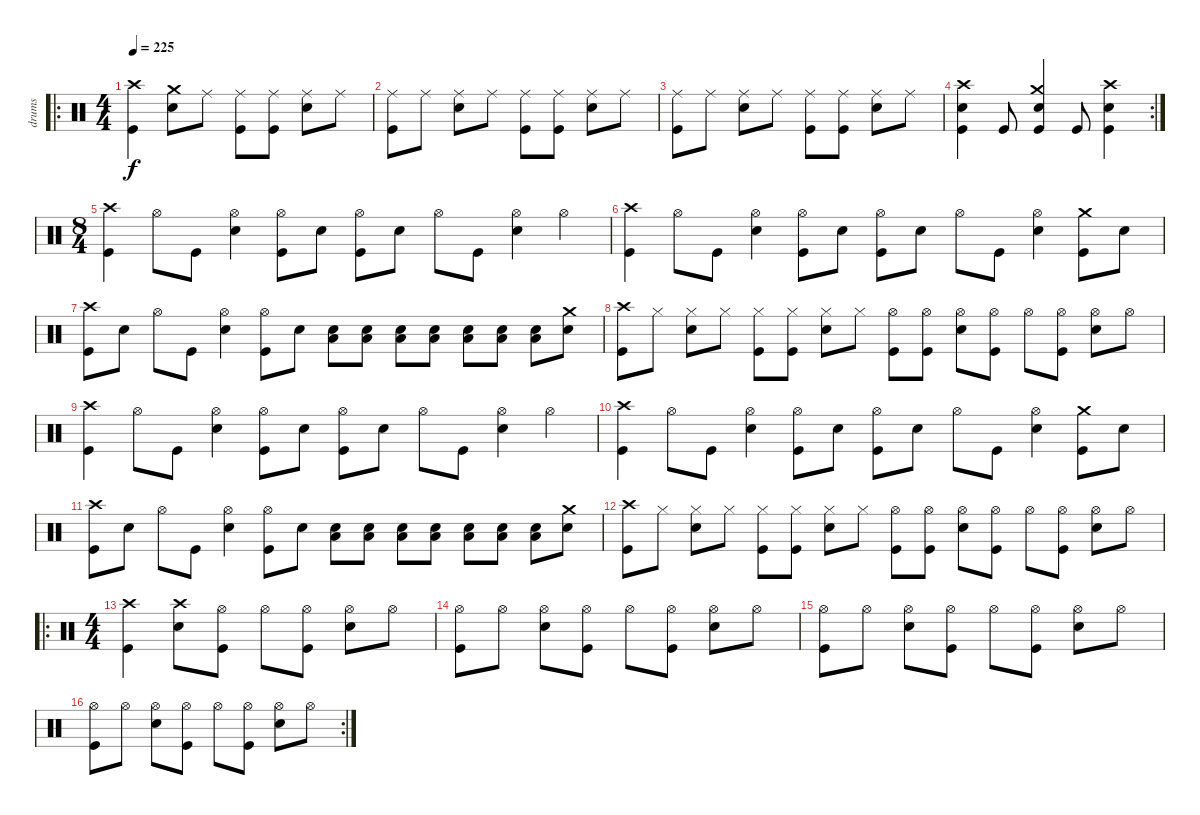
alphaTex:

\track ("drums" "drums") {instrument percussion}
\staff {score}
\articulation defaults
\ro
\ts (4 4)
\tempo 225
\clef neutral
\ks c
("Crash high (hit)" "Kick (hit)").4{dy f} ("Crash medium (hit)" "Snare (hit) 2").8 "Ride (middle)".8 ("Ride (middle)" "Kick (hit)").8 ("Ride (middle)" "Kick (hit)").8 ("Ride (middle)" "Snare (hit) 2").8 "Ride (middle)".8 |
("Ride (middle)" "Kick (hit)").8 "Ride (middle)".8 ("Ride (middle)" "Snare (hit) 2").8 "Ride (middle)".8 ("Ride (middle)" "Kick (hit)").8 ("Ride (middle)" "Kick (hit)").8 ("Ride (middle)" "Snare (hit) 2").8 "Ride (middle)".8 |
("Ride (middle)" "Kick (hit)").8 "Ride (middle)".8 ("Ride (middle)" "Snare (hit) 2").8 "Ride (middle)".8 ("Ride (middle)" "Kick (hit)").8 ("Ride (middle)" "Kick (hit)").8 ("Ride (middle)" "Snare (hit) 2").8 "Ride (middle)".8 |
\rc 2
("Crash high (hit)" "Snare (hit) 2" "Kick (hit)").4 "Kick (hit)".8 ("Crash medium (hit)" "Snare (hit) 2" "Kick (hit)").4 "Kick (hit)".8 ("Crash high (hit)" "Snare (hit) 2" "Kick (hit)").4 |
\ts (8 4)
("Crash high (hit)" "Kick (hit)").4 "Hi-Hat (open)".8 "Kick (hit)".8 ("Hi-Hat (open)" "Snare (hit) 2").4 ("Hi-Hat (open)" "Kick (hit)").8 "Snare (hit) 2".8 ("Hi-Hat (open)" "Kick (hit)").8 "Snare (hit) 2".8 "Hi-Hat (open)".8 "Kick (hit)".8 ("Hi-Hat (open)" "Snare (hit) 2").4 "Hi-Hat (open)".4 |
("Crash high (hit)" "Kick (hit)").4 "Hi-Hat (open)".8 "Kick (hit)".8 ("Hi-Hat (open)" "Snare (hit) 2").4 ("Hi-Hat (open)" "Kick (hit)").8 "Snare (hit) 2".8 ("Hi-Hat (open)" "Kick (hit)").8 "Snare (hit) 2".8 "Hi-Hat (open)".8 "Kick (hit)".8 ("Hi-Hat (open)" "Snare (hit) 2").4 ("Crash medium (hit)" "Kick (hit)").8 "Snare (hit) 2".8 |
("Crash high (hit)" "Kick (hit)").8 "Snare (hit) 2".8 "Hi-Hat (open)".8 "Kick (hit)".8 ("Hi-Hat (open)" "Snare (hit) 2").4 ("Hi-Hat (open)" "Kick (hit)").8 "Snare (hit) 2".8 ("Snare (hit) 2" "Low Tom (hit)").8 ("Snare (hit) 2" "Low Tom (hit)").8 ("Snare (hit) 2" "Low Tom (hit)").8 ("Snare (hit) 2" "Low Tom (hit)").8 ("Snare (hit) 2" "Low Tom (hit)").8 ("Snare (hit) 2" "Low Tom (hit)").8 ("Snare (hit) 2" "Low Tom (hit)").8 ("Snare (hit) 2" "Crash medium (hit)").8 |
("Crash high (hit)" "Kick (hit)").8 "Hi-Hat (closed)".8 ("Hi-Hat (closed)" "Snare (hit) 2").8 "Hi-Hat (closed)".8 ("Hi-Hat (closed)" "Kick (hit)").8 ("Hi-Hat (closed)" "Kick (hit)").8 ("Hi-Hat (closed)" "Snare (hit) 2").8 "Hi-Hat (closed)".8 ("Hi-Hat (open)" "Kick (hit)").8 ("Hi-Hat (open)" "Kick (hit)").8 ("Hi-Hat (open)" "Snare (hit) 2").8 ("Hi-Hat (open)" "Kick (hit)").8 "Hi-Hat (open)".8 ("Hi-Hat (open)" "Kick (hit)").8 ("Hi-Hat (open)" "Snare (hit) 2").8 "Hi-Hat (open)".8 |
("Crash high (hit)" "Kick (hit)").4 "Hi-Hat (open)".8 "Kick (hit)".8 ("Hi-Hat (open)" "Snare (hit) 2").4 ("Hi-Hat (open)" "Kick (hit)").8 "Snare (hit) 2".8 ("Hi-Hat (open)" "Kick (hit)").8 "Snare (hit) 2".8 "Hi-Hat (open)".8 "Kick (hit)".8 ("Hi-Hat (open)" "Snare (hit) 2").4 "Hi-Hat (open)".4 |
("Crash high (hit)" "Kick (hit)").4 "Hi-Hat (open)".8 "Kick (hit)".8 ("Hi-Hat (open)" "Snare (hit) 2").4 ("Hi-Hat (open)" "Kick (hit)").8 "Snare (hit) 2".8 ("Hi-Hat (open)" "Kick (hit)").8 "Snare (hit) 2".8 "Hi-Hat (open)".8 "Kick (hit)".8 ("Hi-Hat (open)" "Snare (hit) 2").4 ("Crash medium (hit)" "Kick (hit)").8 "Snare (hit) 2".8 |
("Crash high (hit)" "Kick (hit)").8 "Snare (hit) 2".8 "Hi-Hat (open)".8 "Kick (hit)".8 ("Hi-Hat (open)" "Snare (hit) 2").4 ("Hi-Hat (open)" "Kick (hit)").8 "Snare (hit) 2".8 ("Snare (hit) 2" "Low Tom (hit)").8 ("Snare (hit) 2" "Low Tom (hit)").8 ("Snare (hit) 2" "Low Tom (hit)").8 ("Snare (hit) 2" "Low Tom (hit)").8 ("Snare (hit) 2" "Low Tom (hit)").8 ("Snare (hit) 2" "Low Tom (hit)").8 ("Snare (hit) 2" "Low Tom (hit)").8 ("Snare (hit) 2" "Crash medium (hit)").8 |
("Crash high (hit)" "Kick (hit)").8 "Hi-Hat (closed)".8 ("Hi-Hat (closed)" "Snare (hit) 2").8 "Hi-Hat (closed)".8 ("Hi-Hat (closed)" "Kick (hit)").8 ("Hi-Hat (closed)" "Kick (hit)").8 ("Hi-Hat (closed)" "Snare (hit) 2").8 "Hi-Hat (closed)".8 ("Hi-Hat (open)" "Kick (hit)").8 ("Hi-Hat (open)" "Kick (hit)").8 ("Hi-Hat (open)" "Snare (hit) 2").8 ("Hi-Hat (open)" "Kick (hit)").8 "Hi-Hat (open)".8 ("Hi-Hat (open)" "Kick (hit)").8 ("Hi-Hat (open)" "Snare (hit) 2").8 "Hi-Hat (open)".8 |
\ro
\ts (4 4)
("Crash high (hit)" "Kick (hit)").4 ("Crash high (hit)" "Snare (hit) 2").8 ("Hi-Hat (open)" "Kick (hit)").8 "Hi-Hat (open)".8 ("Hi-Hat (open)" "Kick (hit)").8 ("Hi-Hat (open)" "Snare (hit) 2").8 "Hi-Hat (open)".8 |
("Hi-Hat (open)" "Kick (hit)").8 "Hi-Hat (open)".8 ("Hi-Hat (open)" "Snare (hit) 2").8 ("Hi-Hat (open)" "Kick (hit)").8 "Hi-Hat (open)".8 ("Hi-Hat (open)" "Kick (hit)").8 ("Hi-Hat (open)" "Snare (hit) 2").8 "Hi-Hat (open)".8 |
("Hi-Hat (open)" "Kick (hit)").8 "Hi-Hat (open)".8 ("Hi-Hat (open)" "Snare (hit) 2").8 ("Hi-Hat (open)" "Kick (hit)").8 "Hi-Hat (open)".8 ("Hi-Hat (open)" "Kick (hit)").8 ("Hi-Hat (open)" "Snare (hit) 2").8 "Hi-Hat (open)".8 |
\rc 2
("Hi-Hat (open)" "Kick (hit)").8 "Hi-Hat (open)".8 ("Hi-Hat (open)" "Snare (hit) 2").8 ("Hi-Hat (open)" "Kick (hit)").8 "Hi-Hat (open)".8 ("Hi-Hat (open)" "Kick (hit)").8 ("Hi-Hat (open)" "Snare (hit) 2").8 "Hi-Hat (open)".8
